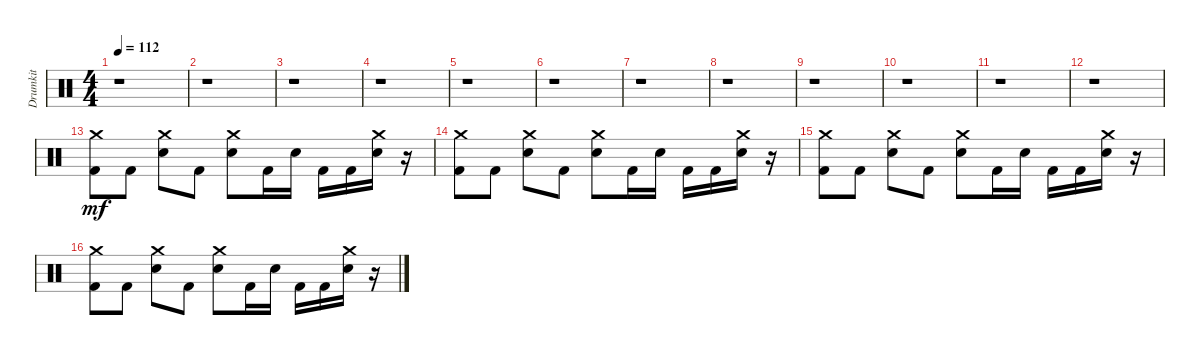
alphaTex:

\track ("Drumkit" "Drumkit") {instrument percussion}
\staff {score}
\articulation defaults
\ts (4 4)
\tempo 112
\clef neutral
\ks c
r.1{dy mf} |
r.1 |
r.1 |
r.1 |
r.1 |
r.1 |
r.1 |
r.1 |
r.1 |
r.1 |
r.1 |
r.1 |
("Kick (hit) 2" "Crash medium (hit)").8 "Kick (hit) 2".8 ("Snare (hit) 2" "Crash medium (hit)").8 "Kick (hit) 2".8 ("Snare (hit) 2" "Crash medium (hit)").8 "Kick (hit) 2".16 "Snare (hit) 2".16 "Kick (hit) 2".16 "Kick (hit) 2".16 ("Snare (hit) 2" "Crash medium (hit)").16 r.16 |
("Kick (hit) 2" "Crash medium (hit)").8 "Kick (hit) 2".8 ("Snare (hit) 2" "Crash medium (hit)").8 "Kick (hit) 2".8 ("Snare (hit) 2" "Crash medium (hit)").8 "Kick (hit) 2".16 "Snare (hit) 2".16 "Kick (hit) 2".16 "Kick (hit) 2".16 ("Snare (hit) 2" "Crash medium (hit)").16 r.16 |
("Kick (hit) 2" "Crash medium (hit)").8 "Kick (hit) 2".8 ("Snare (hit) 2" "Crash medium (hit)").8 "Kick (hit) 2".8 ("Snare (hit) 2" "Crash medium (hit)").8 "Kick (hit) 2".16 "Snare (hit) 2".16 "Kick (hit) 2".16 "Kick (hit) 2".16 ("Snare (hit) 2" "Crash medium (hit)").16 r.16 |
("Kick (hit) 2" "Crash medium (hit)").8 "Kick (hit) 2".8 ("Snare (hit) 2" "Crash medium (hit)").8 "Kick (hit) 2".8 ("Snare (hit) 2" "Crash medium (hit)").8 "Kick (hit) 2".16 "Snare (hit) 2".16 "Kick (hit) 2".16 "Kick (hit) 2".16 ("Snare (hit) 2" "Crash medium (hit)").16 r.16
